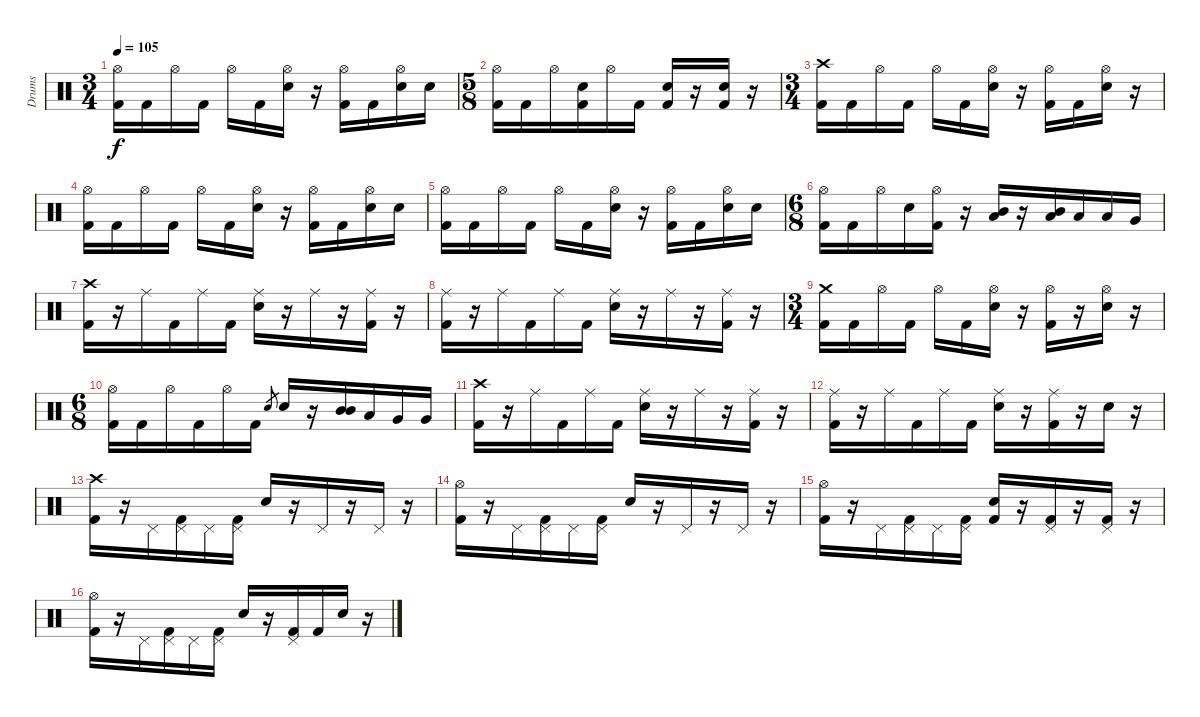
\track ("Drums" "Drums") {instrument percussion}
\staff {score}
\articulation defaults
\ts (3 4)
\tempo 105
\clef neutral
\ks c
("Hi-Hat (open)" "Kick (hit) 2").16{dy f} "Kick (hit) 2".16 "Hi-Hat (open)".16 "Kick (hit) 2".16 "Hi-Hat (open)".16 "Kick (hit) 2".16 ("Hi-Hat (open)" "Electric Snare (hit)").16 r.16 ("Hi-Hat (open)" "Kick (hit) 2").16 "Kick (hit) 2".16 ("Hi-Hat (open)" "Electric Snare (hit)").16 "Electric Snare (hit)".16 |
\ts (5 8)
("Hi-Hat (open)" "Kick (hit) 2").16 "Kick (hit) 2".16 "Hi-Hat (open)".16 ("Electric Snare (hit)" "Kick (hit) 2").16 "Hi-Hat (open)".16 "Kick (hit) 2".16 ("Electric Snare (hit)" "Kick (hit) 2").16 r.16 ("Electric Snare (hit)" "Kick (hit) 2").16 r.16 |
\ts (3 4)
("Crash high (hit)" "Kick (hit) 2").16 "Kick (hit) 2".16 "Hi-Hat (open)".16 "Kick (hit) 2".16 "Hi-Hat (open)".16 "Kick (hit) 2".16 ("Hi-Hat (open)" "Electric Snare (hit)").16 r.16 ("Hi-Hat (open)" "Kick (hit) 2").16 "Kick (hit) 2".16 ("Hi-Hat (open)" "Electric Snare (hit)").16 r.16 |
("Hi-Hat (open)" "Kick (hit) 2").16 "Kick (hit) 2".16 "Hi-Hat (open)".16 "Kick (hit) 2".16 "Hi-Hat (open)".16 "Kick (hit) 2".16 ("Hi-Hat (open)" "Electric Snare (hit)").16 r.16 ("Hi-Hat (open)" "Kick (hit) 2").16 "Kick (hit) 2".16 ("Hi-Hat (open)" "Electric Snare (hit)").16 "Electric Snare (hit)".16 |
("Hi-Hat (open)" "Kick (hit) 2").16 "Kick (hit) 2".16 "Hi-Hat (open)".16 "Kick (hit) 2".16 "Hi-Hat (open)".16 "Kick (hit) 2".16 ("Hi-Hat (open)" "Electric Snare (hit)").16 r.16 ("Hi-Hat (open)" "Kick (hit) 2").16 "Kick (hit) 2".16 ("Hi-Hat (open)" "Electric Snare (hit)").16 "Electric Snare (hit)".16 |
\ts (6 8)
("Hi-Hat (open)" "Kick (hit) 2").16 "Kick (hit) 2".16 "Hi-Hat (open)".16 "Electric Snare (hit)".16 ("Hi-Hat (open)" "Kick (hit) 2").16 r.16 ("Mid Tom (hit)" "Low Tom (hit)").16 r.16 ("Mid Tom (hit)" "Low Tom (hit)").16 "Low Tom (hit)".16 "Low Tom (hit)".16 "Very Low Tom (hit)".16 |
("Crash high (hit)" "Kick (hit) 2").16 r.16 "Ride (middle)".16 "Kick (hit) 2".16 "Ride (middle)".16 "Kick (hit) 2".16 ("Ride (middle)" "Electric Snare (hit)").16 r.16 "Ride (middle)".16 r.16 ("Ride (middle)" "Kick (hit) 2").16 r.16 |
("Ride (middle)" "Kick (hit) 2").16 r.16 "Ride (middle)".16 "Kick (hit) 2".16 "Ride (middle)".16 "Kick (hit) 2".16 ("Ride (middle)" "Electric Snare (hit)").16 r.16 "Ride (middle)".16 r.16 ("Ride (middle)" "Kick (hit) 2").16 r.16 |
\ts (3 4)
("Crash medium (hit)" "Kick (hit) 2").16 "Kick (hit) 2".16 "Hi-Hat (open)".16 "Kick (hit) 2".16 "Hi-Hat (open)".16 "Kick (hit) 2".16 ("Hi-Hat (open)" "Electric Snare (hit)").16 r.16 ("Hi-Hat (open)" "Kick (hit) 2").16 r.16 ("Hi-Hat (open)" "Electric Snare (hit)").16 r.16 |
\ts (6 8)
("Hi-Hat (open)" "Kick (hit) 2").16 "Kick (hit) 2".16 "Hi-Hat (open)".16 "Kick (hit) 2".16 "Hi-Hat (open)".16 "Kick (hit) 2".16 "Electric Snare (hit)".8{gr} "Electric Snare (hit)".16 r.16 ("Mid Tom (hit)" "Mid Tom (hit)").16 "Low Tom (hit)".16 "Very Low Tom (hit)".16 "Very Low Tom (hit)".16 |
("Crash high (hit)" "Kick (hit) 2").16 r.16 "Ride (middle)".16 "Kick (hit) 2".16 "Ride (middle)".16 "Kick (hit) 2".16 ("Ride (middle)" "Electric Snare (hit)").16 r.16 "Ride (middle)".16 r.16 ("Ride (middle)" "Kick (hit) 2").16 r.16 |
("Ride (middle)" "Kick (hit) 2").16 r.16 "Ride (middle)".16 "Kick (hit) 2".16 "Ride (middle)".16 "Kick (hit) 2".16 ("Ride (middle)" "Electric Snare (hit)").16 r.16 ("Ride (middle)" "Kick (hit) 2").16 r.16 "Electric Snare (hit)".16 r.16 |
("Crash high (hit)" "Kick (hit) 2").16 r.16 "Pedal Hi-Hat (hit)".16 ("Pedal Hi-Hat (hit)" "Kick (hit) 2").16 "Pedal Hi-Hat (hit)".16 ("Pedal Hi-Hat (hit)" "Kick (hit) 2").16 "Electric Snare (hit)".16 r.16 "Pedal Hi-Hat (hit)".16 r.16 "Pedal Hi-Hat (hit)".16 r.16 |
("Hi-Hat (open)" "Kick (hit) 2").16 r.16 "Pedal Hi-Hat (hit)".16 ("Pedal Hi-Hat (hit)" "Kick (hit) 2").16 "Pedal Hi-Hat (hit)".16 ("Pedal Hi-Hat (hit)" "Kick (hit) 2").16 "Electric Snare (hit)".16 r.16 "Pedal Hi-Hat (hit)".16 r.16 "Pedal Hi-Hat (hit)".16 r.16 |
("Hi-Hat (open)" "Kick (hit) 2").16 r.16 "Pedal Hi-Hat (hit)".16 ("Pedal Hi-Hat (hit)" "Kick (hit) 2").16 "Pedal Hi-Hat (hit)".16 ("Pedal Hi-Hat (hit)" "Kick (hit) 2").16 ("Electric Snare (hit)" "Kick (hit) 2").16 r.16 ("Pedal Hi-Hat (hit)" "Kick (hit) 2").16 r.16 ("Pedal Hi-Hat (hit)" "Kick (hit) 2").16 r.16 |
("Hi-Hat (open)" "Kick (hit) 2").16 r.16 "Pedal Hi-Hat (hit)".16 ("Pedal Hi-Hat (hit)" "Kick (hit) 2").16 "Pedal Hi-Hat (hit)".16 ("Pedal Hi-Hat (hit)" "Kick (hit) 2").16 "Electric Snare (hit)".16 r.16 ("Pedal Hi-Hat (hit)" "Kick (hit) 2").16 "Kick (hit) 2".16 "Electric Snare (hit)".16 r.16
